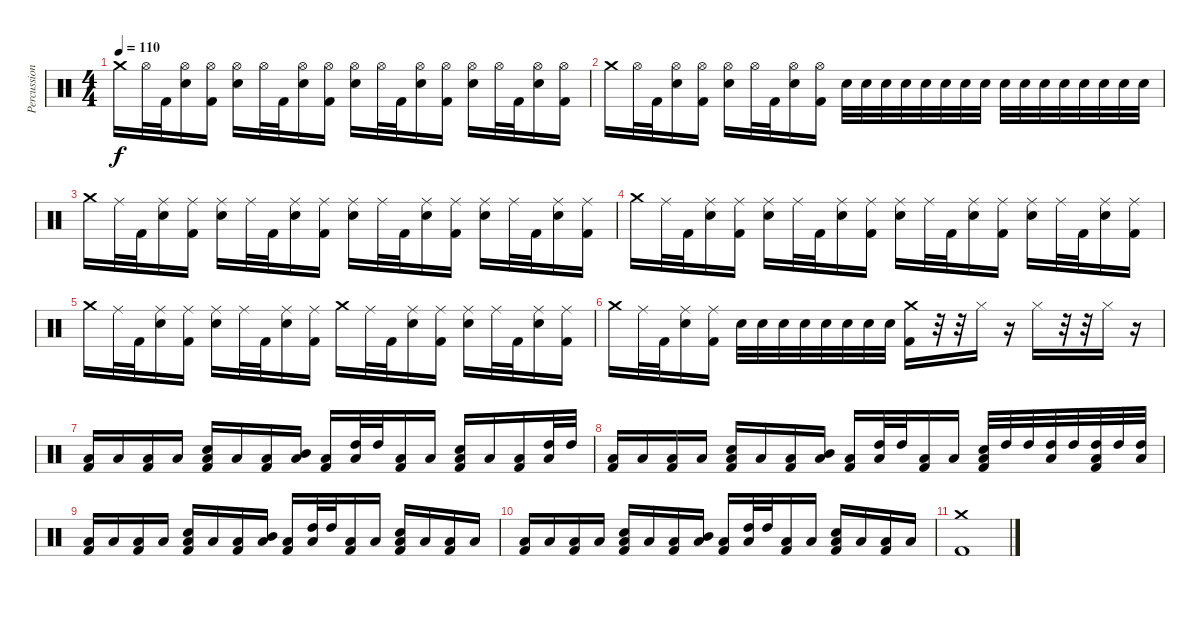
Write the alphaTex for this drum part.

\track ("Percussion" "Percussion") {instrument percussion}
\staff {score}
\articulation defaults
\ts (4 4)
\tempo 110
\clef neutral
\ks c "Crash medium (hit)".16{dy f} "Hi-Hat (open)".32 "Kick (hit) 2".32
("Hi-Hat (open)" "Electric Snare (hit)").16 ("Hi-Hat (open)" "Kick (hit) 2").16 ("Hi-Hat (open)" "Electric Snare (hit)").16 "Hi-Hat (open)".32 "Kick (hit) 2".32 ("Hi-Hat (open)" "Electric Snare (hit)").16 ("Hi-Hat (open)" "Kick (hit) 2").16 ("Hi-Hat (open)" "Electric Snare (hit)").16 "Hi-Hat (open)".32 "Kick (hit) 2".32 ("Hi-Hat (open)" "Electric Snare (hit)").16 ("Hi-Hat (open)" "Kick (hit) 2").16 ("Hi-Hat (open)" "Electric Snare (hit)").16 "Hi-Hat (open)".32 "Kick (hit) 2".32 ("Hi-Hat (open)" "Electric Snare (hit)").16 ("Hi-Hat (open)" "Kick (hit) 2").16 |
"Crash medium (hit)".16 "Hi-Hat (open)".32 "Kick (hit) 2".32 ("Hi-Hat (open)" "Electric Snare (hit)").16 ("Hi-Hat (open)" "Kick (hit) 2").16 ("Hi-Hat (open)" "Electric Snare (hit)").16 "Hi-Hat (open)".32 "Kick (hit) 2".32 ("Hi-Hat (open)" "Electric Snare (hit)").16 ("Hi-Hat (open)" "Kick (hit) 2").16 "Electric Snare (hit)".32 "Electric Snare (hit)".32 "Electric Snare (hit)".32 "Electric Snare (hit)".32 "Electric Snare (hit)".32 "Electric Snare (hit)".32 "Electric Snare (hit)".32 "Electric Snare (hit)".32 "Electric Snare (hit)".32 "Electric Snare (hit)".32 "Electric Snare (hit)".32 "Electric Snare (hit)".32 "Electric Snare (hit)".32 "Electric Snare (hit)".32 "Electric Snare (hit)".32 "Electric Snare (hit)".32 |
"Crash medium (hit)".16 "Ride (middle)".32 "Kick (hit) 2".32 ("Ride (middle)" "Electric Snare (hit)").16 ("Ride (middle)" "Kick (hit) 2").16 ("Ride (middle)" "Electric Snare (hit)").16 "Ride (middle)".32 "Kick (hit) 2".32 ("Ride (middle)" "Electric Snare (hit)").16 ("Ride (middle)" "Kick (hit) 2").16 ("Ride (middle)" "Electric Snare (hit)").16 "Ride (middle)".32 "Kick (hit) 2".32 ("Ride (middle)" "Electric Snare (hit)").16 ("Ride (middle)" "Kick (hit) 2").16 ("Ride (middle)" "Electric Snare (hit)").16 "Ride (middle)".32 "Kick (hit) 2".32 ("Ride (middle)" "Electric Snare (hit)").16 ("Ride (middle)" "Kick (hit) 2").16 |
"Crash medium (hit)".16 "Ride (middle)".32 "Kick (hit) 2".32 ("Ride (middle)" "Electric Snare (hit)").16 ("Ride (middle)" "Kick (hit) 2").16 ("Ride (middle)" "Electric Snare (hit)").16 "Ride (middle)".32 "Kick (hit) 2".32 ("Ride (middle)" "Electric Snare (hit)").16 ("Ride (middle)" "Kick (hit) 2").16 ("Ride (middle)" "Electric Snare (hit)").16 "Ride (middle)".32 "Kick (hit) 2".32 ("Ride (middle)" "Electric Snare (hit)").16 ("Ride (middle)" "Kick (hit) 2").16 ("Ride (middle)" "Electric Snare (hit)").16 "Ride (middle)".32 "Kick (hit) 2".32 ("Ride (middle)" "Electric Snare (hit)").16 ("Ride (middle)" "Kick (hit) 2").16 |
"Crash medium (hit)".16 "Ride (middle)".32 "Kick (hit) 2".32 ("Ride (middle)" "Electric Snare (hit)").16 ("Ride (middle)" "Kick (hit) 2").16 ("Ride (middle)" "Electric Snare (hit)").16 "Ride (middle)".32 "Kick (hit) 2".32 ("Ride (middle)" "Electric Snare (hit)").16 ("Ride (middle)" "Kick (hit) 2").16 "Crash medium (hit)".16 "Ride (middle)".32 "Kick (hit) 2".32 ("Ride (middle)" "Electric Snare (hit)").16 ("Ride (middle)" "Kick (hit) 2").16 ("Ride (middle)" "Electric Snare (hit)").16 "Ride (middle)".32 "Kick (hit) 2".32 ("Ride (middle)" "Electric Snare (hit)").16 ("Ride (middle)" "Kick (hit) 2").16 |
"Crash medium (hit)".16 "Ride (middle)".32 "Kick (hit) 2".32 ("Ride (middle)" "Electric Snare (hit)").16 ("Ride (middle)" "Kick (hit) 2").16 "Electric Snare (hit)".32 "Electric Snare (hit)".32 "Electric Snare (hit)".32 "Electric Snare (hit)".32 "Electric Snare (hit)".32 "Electric Snare (hit)".32 "Electric Snare (hit)".32 "Electric Snare (hit)".32 ("Crash medium (hit)" "Kick (hit) 2").16 r.32 r.32 "Hi-Hat (closed)".16 r.16 "Hi-Hat (closed)".16 r.32 r.32 "Hi-Hat (closed)".16 r.16 |
("Low Floor Tom (hit)" "Kick (hit) 2").16 "Low Floor Tom (hit)".16 ("Low Floor Tom (hit)" "Kick (hit) 2").16 "Low Floor Tom (hit)".16 ("Electric Snare (hit)" "Low Floor Tom (hit)" "Kick (hit) 2").16 "Low Floor Tom (hit)".16 ("Low Floor Tom (hit)" "Kick (hit) 2").16 ("Mid Tom (hit)" "Low Floor Tom (hit)").16 ("Low Floor Tom (hit)" "Kick (hit) 2").16 ("High Tom (hit)" "Low Floor Tom (hit)").32 "High Tom (hit)".32 ("Low Floor Tom (hit)" "Kick (hit) 2").16 "Low Floor Tom (hit)".16 ("Electric Snare (hit)" "Low Floor Tom (hit)" "Kick (hit) 2").16 "Low Floor Tom (hit)".16 ("Low Floor Tom (hit)" "Kick (hit) 2").16 ("High Tom (hit)" "Low Floor Tom (hit)").32 "High Tom (hit)".32 |
("Low Floor Tom (hit)" "Kick (hit) 2").16 "Low Floor Tom (hit)".16 ("Low Floor Tom (hit)" "Kick (hit) 2").16 "Low Floor Tom (hit)".16 ("Electric Snare (hit)" "Low Floor Tom (hit)" "Kick (hit) 2").16 "Low Floor Tom (hit)".16 ("Low Floor Tom (hit)" "Kick (hit) 2").16 ("Mid Tom (hit)" "Low Floor Tom (hit)").16 ("Low Floor Tom (hit)" "Kick (hit) 2").16 ("High Tom (hit)" "Low Floor Tom (hit)").32 "High Tom (hit)".32 ("Low Floor Tom (hit)" "Kick (hit) 2").16 "Low Floor Tom (hit)".16 ("Electric Snare (hit)" "Low Floor Tom (hit)" "Kick (hit) 2").32 "High Tom (hit)".32 "High Tom (hit)".32 ("High Tom (hit)" "Low Floor Tom (hit)").32 "High Tom (hit)".32 ("High Tom (hit)" "Low Floor Tom (hit)" "Kick (hit) 2").32 "High Tom (hit)".32 ("High Tom (hit)" "Low Floor Tom (hit)").32 |
("Low Floor Tom (hit)" "Kick (hit) 2").16 "Low Floor Tom (hit)".16 ("Low Floor Tom (hit)" "Kick (hit) 2").16 "Low Floor Tom (hit)".16 ("Electric Snare (hit)" "Low Floor Tom (hit)" "Kick (hit) 2").16 "Low Floor Tom (hit)".16 ("Low Floor Tom (hit)" "Kick (hit) 2").16 ("Mid Tom (hit)" "Low Floor Tom (hit)").16 ("Low Floor Tom (hit)" "Kick (hit) 2").16 ("High Tom (hit)" "Low Floor Tom (hit)").32 "High Tom (hit)".32 ("Low Floor Tom (hit)" "Kick (hit) 2").16 "Low Floor Tom (hit)".16 ("Electric Snare (hit)" "Low Floor Tom (hit)" "Kick (hit) 2").16 "Low Floor Tom (hit)".16 ("Low Floor Tom (hit)" "Kick (hit) 2").16 "Low Floor Tom (hit)".16 |
("Low Floor Tom (hit)" "Kick (hit) 2").16 "Low Floor Tom (hit)".16 ("Low Floor Tom (hit)" "Kick (hit) 2").16 "Low Floor Tom (hit)".16 ("Electric Snare (hit)" "Low Floor Tom (hit)" "Kick (hit) 2").16 "Low Floor Tom (hit)".16 ("Low Floor Tom (hit)" "Kick (hit) 2").16 ("Mid Tom (hit)" "Low Floor Tom (hit)").16 ("Low Floor Tom (hit)" "Kick (hit) 2").16 ("High Tom (hit)" "Low Floor Tom (hit)").32 "High Tom (hit)".32 ("Low Floor Tom (hit)" "Kick (hit) 2").16 "Low Floor Tom (hit)".16 ("Electric Snare (hit)" "Low Floor Tom (hit)" "Kick (hit) 2").16 "Low Floor Tom (hit)".16 ("Low Floor Tom (hit)" "Kick (hit) 2").16 "Low Floor Tom (hit)".16 |
("Crash medium (hit)" "Kick (hit) 2").1
